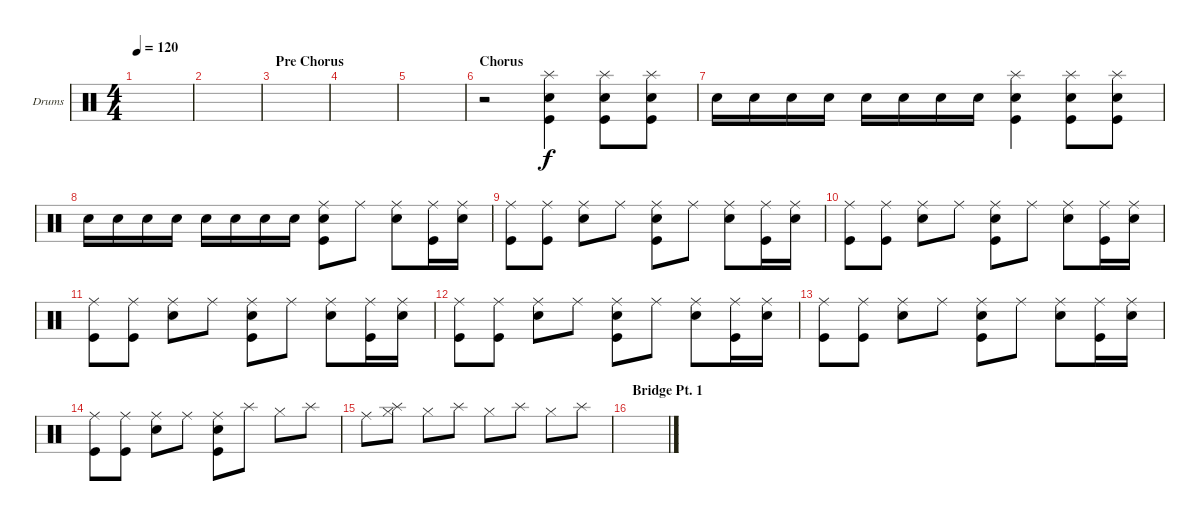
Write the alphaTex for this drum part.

\defaultSystemsLayout 4
\bracketExtendMode groupsimilarinstruments
\firstSystemTrackNameOrientation horizontal
\otherSystemsTrackNameOrientation horizontal
\track ("Drumkit" "Drums") {instrument percussion}
\staff {score}
\articulation defaults
\ts (4 4)
\tempo 120
\clef neutral
\scale
0.333333
\ks c
|
\scale
0.333333 |
\section ("" "Pre Chorus")
\scale
0.333333 |
\scale
0.333333 |
\scale
0.333333 |
\section ("" "Chorus")
\scale
0.333333 r.2 ("Kick (hit)" "Snare (hit) 2" "Splash (hit)").4 ("Splash (hit)" "Snare (hit) 2" "Kick (hit)").8 ("Kick (hit)" "Snare (hit) 2" "Splash (hit)").8 |
\scale
0.333333 "Snare (hit) 2".16 "Snare (hit) 2".16 "Snare (hit) 2".16 "Snare (hit) 2".16 "Snare (hit) 2".16 "Snare (hit) 2".16 "Snare (hit) 2".16 "Snare (hit) 2".16 ("Splash (hit)" "Snare (hit) 2" "Kick (hit)").4 ("Kick (hit)" "Snare (hit) 2" "Splash (hit)").8 ("Splash (hit)" "Snare (hit) 2" "Kick (hit)").8 |
\scale
0.333333 "Snare (hit) 2".16 "Snare (hit) 2".16 "Snare (hit) 2".16 "Snare (hit) 2".16 "Snare (hit) 2".16 "Snare (hit) 2".16 "Snare (hit) 2".16 "Snare (hit) 2".16 ("Snare (hit) 2" "Kick (hit)" "Ride (middle)").8 "Ride (middle)".8 ("Ride (middle)" "Snare (hit) 2").8 ("Ride (middle)" "Kick (hit)").16 ("Snare (hit) 2" "Ride (middle)").16 |
\scale
0.333333 ("Ride (middle)" "Kick (hit)").8 ("Ride (middle)" "Kick (hit)").8 ("Ride (middle)" "Snare (hit) 2").8 "Ride (middle)".8 ("Ride (middle)" "Snare (hit) 2" "Kick (hit)").8 "Ride (middle)".8 ("Ride (middle)" "Snare (hit) 2").8 ("Ride (middle)" "Kick (hit)").16 ("Ride (middle)" "Snare (hit) 2").16 |
\scale
0.333333 ("Ride (middle)" "Kick (hit)").8 ("Ride (middle)" "Kick (hit)").8 ("Ride (middle)" "Snare (hit) 2").8 "Ride (middle)".8 ("Ride (middle)" "Snare (hit) 2" "Kick (hit)").8 "Ride (middle)".8 ("Ride (middle)" "Snare (hit) 2").8 ("Ride (middle)" "Kick (hit)").16 ("Snare (hit) 2" "Ride (middle)").16 |
\scale
0.333333 ("Ride (middle)" "Kick (hit)").8 ("Ride (middle)" "Kick (hit)").8 ("Ride (middle)" "Snare (hit) 2").8 "Ride (middle)".8 ("Ride (middle)" "Snare (hit) 2" "Kick (hit)").8 "Ride (middle)".8 ("Ride (middle)" "Snare (hit) 2").8 ("Ride (middle)" "Kick (hit)").16 ("Snare (hit) 2" "Ride (middle)").16 |
\scale
0.333333 ("Ride (middle)" "Kick (hit)").8 ("Ride (middle)" "Kick (hit)").8 ("Ride (middle)" "Snare (hit) 2").8 "Ride (middle)".8 ("Ride (middle)" "Snare (hit) 2" "Kick (hit)").8 "Ride (middle)".8 ("Ride (middle)" "Snare (hit) 2").8 ("Ride (middle)" "Kick (hit)").16 ("Snare (hit) 2" "Ride (middle)").16 |
\scale
0.333333 ("Ride (middle)" "Kick (hit)").8 ("Ride (middle)" "Kick (hit)").8 ("Ride (middle)" "Snare (hit) 2").8 "Ride (middle)".8 ("Ride (middle)" "Snare (hit) 2" "Kick (hit)").8 "Ride (middle)".8 ("Ride (middle)" "Snare (hit) 2").8 ("Ride (middle)" "Kick (hit)").16 ("Snare (hit) 2" "Ride (middle)").16 |
\scale
0.333333 ("Ride (middle)" "Kick (hit)").8 ("Ride (middle)" "Kick (hit)").8 ("Ride (middle)" "Snare (hit) 2").8 "Ride (middle)".8 ("Snare (hit) 2" "Kick (hit)" "Ride (middle)").8 "Splash (hit)".8 "Hi-Hat (closed)".8 "Splash (hit)".8 |
\scale
0.333333 "Ride (middle)".8 ("Splash (hit)" "Hi-Hat (closed)").8 "Hi-Hat (closed)".8 "Splash (hit)".8 "Hi-Hat (closed)".8 "Splash (hit)".8 "Hi-Hat (closed)".8 "Splash (hit)".8 |
\section ("" "Bridge Pt. 1")
\scale
0.333333
